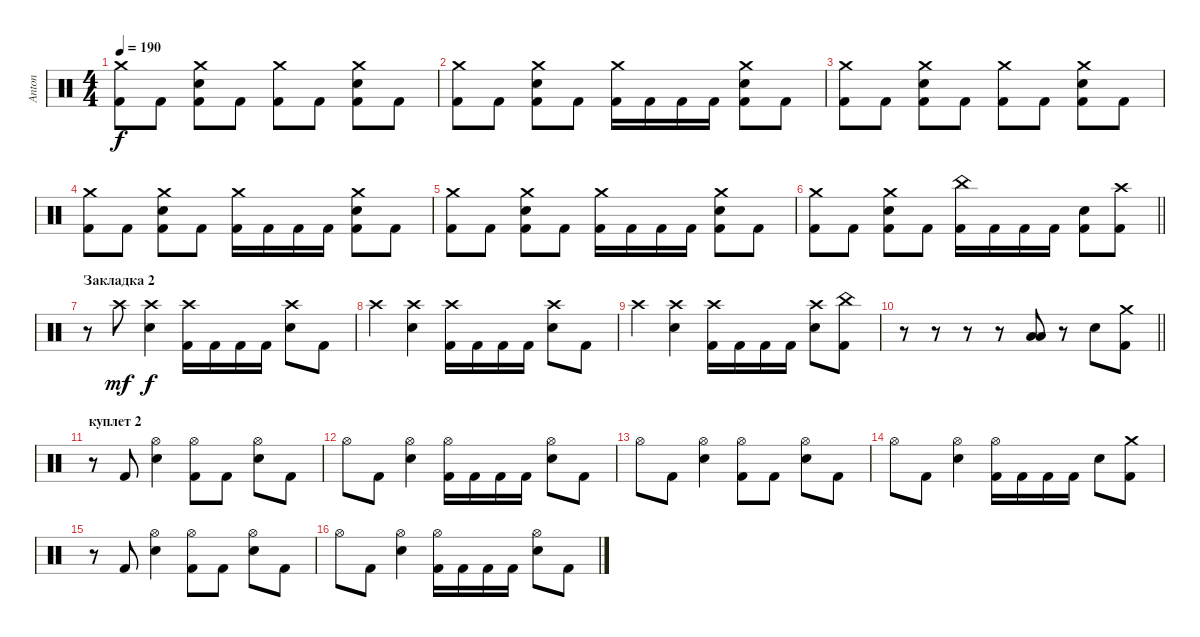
\track ("Anton" "Anton") {instrument percussion}
\staff {score}
\articulation defaults
\ts (4 4)
\tempo 190
\clef neutral
\ks c
("Crash medium (hit)" "Kick (hit) 2").8{dy f} "Kick (hit) 2".8 ("Crash medium (hit)" "Electric Snare (hit)" "Kick (hit) 2").8 "Kick (hit) 2".8 ("Crash medium (hit)" "Kick (hit) 2").8 "Kick (hit) 2".8 ("Crash medium (hit)" "Electric Snare (hit)" "Kick (hit) 2").8 "Kick (hit) 2".8 |
("Crash medium (hit)" "Kick (hit) 2").8 "Kick (hit) 2".8 ("Crash medium (hit)" "Electric Snare (hit)" "Kick (hit) 2").8 "Kick (hit) 2".8 ("Crash medium (hit)" "Kick (hit) 2").16 "Kick (hit) 2".16 "Kick (hit) 2".16 "Kick (hit) 2".16 ("Crash medium (hit)" "Electric Snare (hit)" "Kick (hit) 2").8 "Kick (hit) 2".8 |
("Crash medium (hit)" "Kick (hit) 2").8 "Kick (hit) 2".8 ("Crash medium (hit)" "Electric Snare (hit)" "Kick (hit) 2").8 "Kick (hit) 2".8 ("Crash medium (hit)" "Kick (hit) 2").8 "Kick (hit) 2".8 ("Crash medium (hit)" "Electric Snare (hit)" "Kick (hit) 2").8 "Kick (hit) 2".8 |
("Crash medium (hit)" "Kick (hit) 2").8 "Kick (hit) 2".8 ("Crash medium (hit)" "Electric Snare (hit)" "Kick (hit) 2").8 "Kick (hit) 2".8 ("Crash medium (hit)" "Kick (hit) 2").16 "Kick (hit) 2".16 "Kick (hit) 2".16 "Kick (hit) 2".16 ("Crash medium (hit)" "Electric Snare (hit)" "Kick (hit) 2").8 "Kick (hit) 2".8 |
("Crash medium (hit)" "Kick (hit) 2").8 "Kick (hit) 2".8 ("Crash medium (hit)" "Electric Snare (hit)" "Kick (hit) 2").8 "Kick (hit) 2".8 ("Crash medium (hit)" "Kick (hit) 2").16 "Kick (hit) 2".16 "Kick (hit) 2".16 "Kick (hit) 2".16 ("Crash medium (hit)" "Electric Snare (hit)" "Kick (hit) 2").8 "Kick (hit) 2".8 |
\barLineRight lightlight
("Crash medium (hit)" "Kick (hit) 2").8 "Kick (hit) 2".8 ("Crash medium (hit)" "Electric Snare (hit)" "Kick (hit) 2").8 "Kick (hit) 2".8 ("China (hit)" "Kick (hit) 2").16 "Kick (hit) 2".16 "Kick (hit) 2".16 "Kick (hit) 2".16 ("Electric Snare (hit)" "Kick (hit) 2").8 ("Crash high (hit)" "Kick (hit) 2").8 |
\section ("" "Закладка 2")
r.8 "Crash high (hit)".8{dy mf} ("Crash high (hit)" "Electric Snare (hit)").4{dy f} ("Crash high (hit)" "Kick (hit) 2").16 "Kick (hit) 2".16 "Kick (hit) 2".16 "Kick (hit) 2".16 ("Crash high (hit)" "Electric Snare (hit)").8 "Kick (hit) 2".8 |
"Crash high (hit)".4 ("Crash high (hit)" "Electric Snare (hit)").4 ("Crash high (hit)" "Kick (hit) 2").16 "Kick (hit) 2".16 "Kick (hit) 2".16 "Kick (hit) 2".16 ("Crash high (hit)" "Electric Snare (hit)").8 "Kick (hit) 2".8 |
"Crash high (hit)".4 ("Crash high (hit)" "Electric Snare (hit)").4 ("Crash high (hit)" "Kick (hit) 2").16 "Kick (hit) 2".16 "Kick (hit) 2".16 "Kick (hit) 2".16 ("Crash high (hit)" "Electric Snare (hit)").8 ("China (hit)" "Kick (hit) 2").8 |
\barLineRight lightlight
r.8 r.8 r.8 r.8 ("Low Tom (hit)" "Low Floor Tom (hit)").8 r.8 "Electric Snare (hit)".8 ("Crash medium (hit)" "Kick (hit) 2").8 |
\section ("" "куплет 2")
r.8 "Kick (hit) 2".8 ("Hi-Hat (open)" "Electric Snare (hit)").4 ("Hi-Hat (open)" "Kick (hit) 2").8 "Kick (hit) 2".8 ("Hi-Hat (open)" "Electric Snare (hit)").8 "Kick (hit) 2".8 |
"Hi-Hat (open)".8 "Kick (hit) 2".8 ("Hi-Hat (open)" "Electric Snare (hit)").4 ("Hi-Hat (open)" "Kick (hit) 2").16 "Kick (hit) 2".16 "Kick (hit) 2".16 "Kick (hit) 2".16 ("Hi-Hat (open)" "Electric Snare (hit)").8 "Kick (hit) 2".8 |
"Hi-Hat (open)".8 "Kick (hit) 2".8 ("Hi-Hat (open)" "Electric Snare (hit)").4 ("Hi-Hat (open)" "Kick (hit) 2").8 "Kick (hit) 2".8 ("Hi-Hat (open)" "Electric Snare (hit)").8 "Kick (hit) 2".8 |
"Hi-Hat (open)".8 "Kick (hit) 2".8 ("Hi-Hat (open)" "Electric Snare (hit)").4 ("Hi-Hat (open)" "Kick (hit) 2").16 "Kick (hit) 2".16 "Kick (hit) 2".16 "Kick (hit) 2".16 "Electric Snare (hit)".8 ("Crash medium (hit)" "Kick (hit) 2").8 |
r.8 "Kick (hit) 2".8 ("Hi-Hat (open)" "Electric Snare (hit)").4 ("Hi-Hat (open)" "Kick (hit) 2").8 "Kick (hit) 2".8 ("Hi-Hat (open)" "Electric Snare (hit)").8 "Kick (hit) 2".8 |
"Hi-Hat (open)".8 "Kick (hit) 2".8 ("Hi-Hat (open)" "Electric Snare (hit)").4 ("Hi-Hat (open)" "Kick (hit) 2").16 "Kick (hit) 2".16 "Kick (hit) 2".16 "Kick (hit) 2".16 ("Hi-Hat (open)" "Electric Snare (hit)").8 "Kick (hit) 2".8
